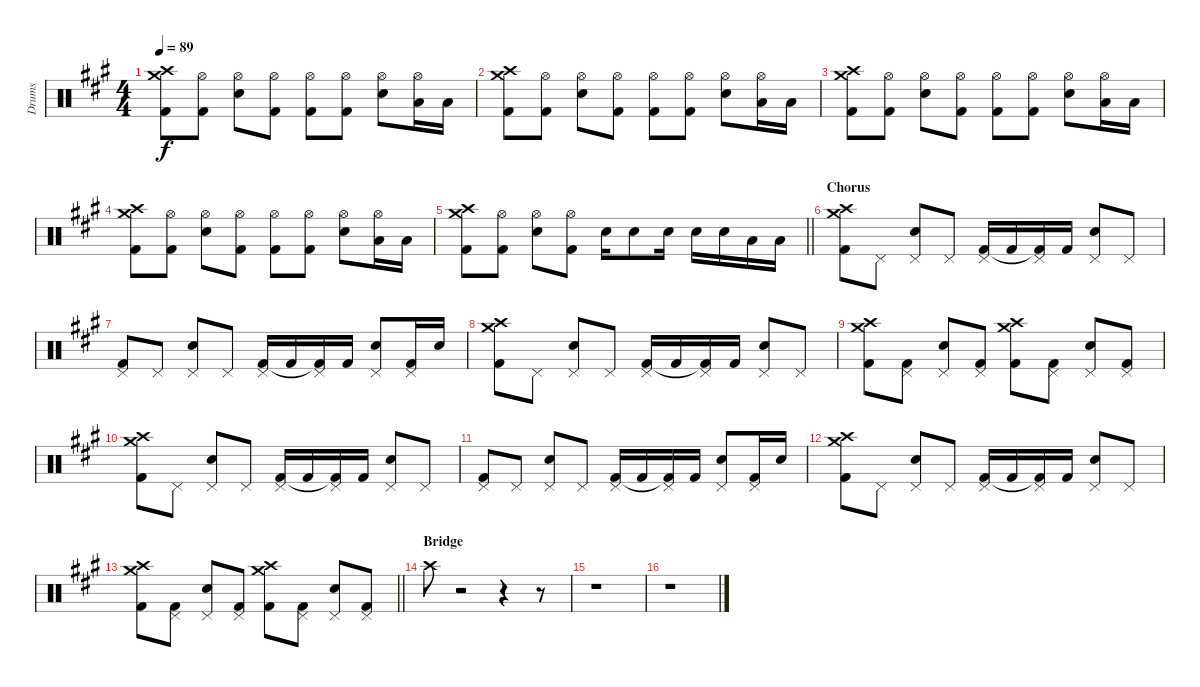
\track ("Drums" "Drums") {instrument percussion}
\staff {score}
\articulation defaults
\ts (4 4)
\tempo 89
\clef neutral
\ks a
("Crash high (hit)" "Crash medium (hit)" "Kick (hit) 2").8{dy f} ("Hi-Hat (open)" "Kick (hit) 2").8 ("Hi-Hat (open)" "Snare (hit) 2").8 ("Hi-Hat (open)" "Kick (hit) 2").8 ("Hi-Hat (open)" "Kick (hit) 2").8 ("Hi-Hat (open)" "Kick (hit) 2").8 ("Hi-Hat (open)" "Snare (hit) 2").8 ("Hi-Hat (open)" "Low Tom (hit)").16 "Low Tom (hit)".16 |
("Crash high (hit)" "Crash medium (hit)" "Kick (hit) 2").8 ("Hi-Hat (open)" "Kick (hit) 2").8 ("Hi-Hat (open)" "Snare (hit) 2").8 ("Hi-Hat (open)" "Kick (hit) 2").8 ("Hi-Hat (open)" "Kick (hit) 2").8 ("Hi-Hat (open)" "Kick (hit) 2").8 ("Hi-Hat (open)" "Snare (hit) 2").8 ("Hi-Hat (open)" "Low Tom (hit)").16 "Low Tom (hit)".16 |
("Crash high (hit)" "Crash medium (hit)" "Kick (hit) 2").8 ("Hi-Hat (open)" "Kick (hit) 2").8 ("Hi-Hat (open)" "Snare (hit) 2").8 ("Hi-Hat (open)" "Kick (hit) 2").8 ("Hi-Hat (open)" "Kick (hit) 2").8 ("Hi-Hat (open)" "Kick (hit) 2").8 ("Hi-Hat (open)" "Snare (hit) 2").8 ("Hi-Hat (open)" "Low Tom (hit)").16 "Low Tom (hit)".16 |
("Crash high (hit)" "Crash medium (hit)" "Kick (hit) 2").8 ("Hi-Hat (open)" "Kick (hit) 2").8 ("Hi-Hat (open)" "Snare (hit) 2").8 ("Hi-Hat (open)" "Kick (hit) 2").8 ("Hi-Hat (open)" "Kick (hit) 2").8 ("Hi-Hat (open)" "Kick (hit) 2").8 ("Hi-Hat (open)" "Snare (hit) 2").8 ("Hi-Hat (open)" "Low Tom (hit)").16 "Low Tom (hit)".16 |
\barLineRight lightlight
("Crash high (hit)" "Crash medium (hit)" "Kick (hit) 2").8 ("Hi-Hat (open)" "Kick (hit) 2").8 ("Hi-Hat (open)" "Snare (hit) 2").8 ("Hi-Hat (open)" "Kick (hit) 2").8 "Snare (hit) 2".16 "Snare (hit) 2".8 "Snare (hit) 2".16 "Snare (hit) 2".16 "Snare (hit) 2".16 "Low Tom (hit)".16 "Low Tom (hit)".16 |
\section ("" "Chorus")
("Crash high (hit)" "Crash medium (hit)" "Kick (hit) 2").8 "Pedal Hi-Hat (hit)".8 ("Pedal Hi-Hat (hit)" "Snare (hit) 2").8 "Pedal Hi-Hat (hit)".8 ("Pedal Hi-Hat (hit)" "Kick (hit) 2").16 "Kick (hit) 2".16 ("Pedal Hi-Hat (hit)" "Kick (hit) 2"{t}).16 "Kick (hit) 2".16 ("Pedal Hi-Hat (hit)" "Snare (hit) 2").8 "Pedal Hi-Hat (hit)".8 |
("Pedal Hi-Hat (hit)" "Kick (hit) 2").8 "Pedal Hi-Hat (hit)".8 ("Pedal Hi-Hat (hit)" "Snare (hit) 2").8 "Pedal Hi-Hat (hit)".8 ("Pedal Hi-Hat (hit)" "Kick (hit) 2").16 "Kick (hit) 2".16 ("Pedal Hi-Hat (hit)" "Kick (hit) 2"{t}).16 "Kick (hit) 2".16 ("Pedal Hi-Hat (hit)" "Snare (hit) 2").8 ("Pedal Hi-Hat (hit)" "Kick (hit) 2").16 "Snare (hit) 2".16 |
("Crash high (hit)" "Crash medium (hit)" "Kick (hit) 2").8 "Pedal Hi-Hat (hit)".8 ("Pedal Hi-Hat (hit)" "Snare (hit) 2").8 "Pedal Hi-Hat (hit)".8 ("Pedal Hi-Hat (hit)" "Kick (hit) 2").16 "Kick (hit) 2".16 ("Pedal Hi-Hat (hit)" "Kick (hit) 2"{t}).16 "Kick (hit) 2".16 ("Pedal Hi-Hat (hit)" "Snare (hit) 2").8 "Pedal Hi-Hat (hit)".8 |
("Crash high (hit)" "Crash medium (hit)" "Kick (hit) 2").8 ("Pedal Hi-Hat (hit)" "Kick (hit) 2").8 ("Pedal Hi-Hat (hit)" "Snare (hit) 2").8 ("Pedal Hi-Hat (hit)" "Kick (hit) 2").8 ("Crash high (hit)" "Crash medium (hit)" "Kick (hit) 2").8 ("Pedal Hi-Hat (hit)" "Kick (hit) 2").8 ("Pedal Hi-Hat (hit)" "Snare (hit) 2").8 ("Pedal Hi-Hat (hit)" "Kick (hit) 2").8 |
("Crash high (hit)" "Crash medium (hit)" "Kick (hit) 2").8 "Pedal Hi-Hat (hit)".8 ("Pedal Hi-Hat (hit)" "Snare (hit) 2").8 "Pedal Hi-Hat (hit)".8 ("Pedal Hi-Hat (hit)" "Kick (hit) 2").16 "Kick (hit) 2".16 ("Pedal Hi-Hat (hit)" "Kick (hit) 2"{t}).16 "Kick (hit) 2".16 ("Pedal Hi-Hat (hit)" "Snare (hit) 2").8 "Pedal Hi-Hat (hit)".8 |
("Pedal Hi-Hat (hit)" "Kick (hit) 2").8 "Pedal Hi-Hat (hit)".8 ("Pedal Hi-Hat (hit)" "Snare (hit) 2").8 "Pedal Hi-Hat (hit)".8 ("Pedal Hi-Hat (hit)" "Kick (hit) 2").16 "Kick (hit) 2".16 ("Pedal Hi-Hat (hit)" "Kick (hit) 2"{t}).16 "Kick (hit) 2".16 ("Pedal Hi-Hat (hit)" "Snare (hit) 2").8 ("Pedal Hi-Hat (hit)" "Kick (hit) 2").16 "Snare (hit) 2".16 |
("Crash high (hit)" "Crash medium (hit)" "Kick (hit) 2").8 "Pedal Hi-Hat (hit)".8 ("Pedal Hi-Hat (hit)" "Snare (hit) 2").8 "Pedal Hi-Hat (hit)".8 ("Pedal Hi-Hat (hit)" "Kick (hit) 2").16 "Kick (hit) 2".16 ("Pedal Hi-Hat (hit)" "Kick (hit) 2"{t}).16 "Kick (hit) 2".16 ("Pedal Hi-Hat (hit)" "Snare (hit) 2").8 "Pedal Hi-Hat (hit)".8 |
\barLineRight lightlight
("Crash high (hit)" "Crash medium (hit)" "Kick (hit) 2").8 ("Pedal Hi-Hat (hit)" "Kick (hit) 2").8 ("Pedal Hi-Hat (hit)" "Snare (hit) 2").8 ("Pedal Hi-Hat (hit)" "Kick (hit) 2").8 ("Crash high (hit)" "Crash medium (hit)" "Kick (hit) 2").8 ("Pedal Hi-Hat (hit)" "Kick (hit) 2").8 ("Pedal Hi-Hat (hit)" "Snare (hit) 2").8 ("Pedal Hi-Hat (hit)" "Kick (hit) 2").8 |
\section ("" "Bridge")
"Crash high (hit)".8 r.2 r.4 r.8 |
r.1 |
r.1
